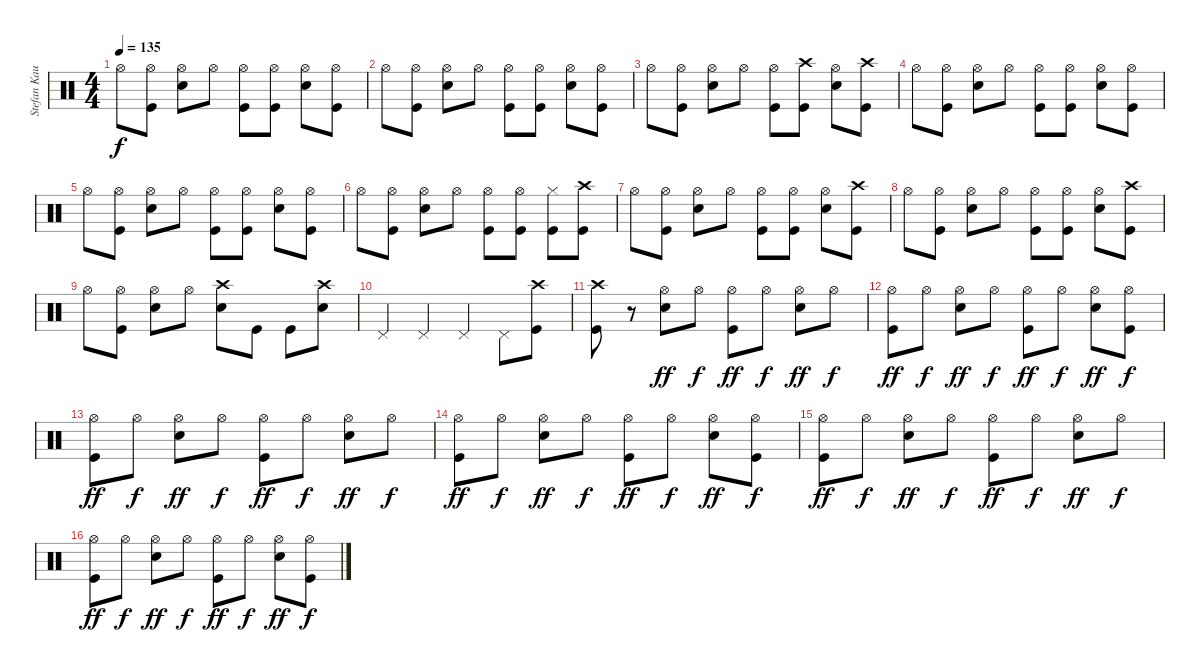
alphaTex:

\track ("Stefan Kaufmann" "Stefan Kau") {instrument percussion}
\staff {score}
\articulation defaults
\ts (4 4)
\tempo 135
\clef neutral
\ks c "Hi-Hat (open)".8{dy f}
("Hi-Hat (open)" "Kick (hit)").8 ("Hi-Hat (open)" "Snare (hit) 2").8 "Hi-Hat (open)".8 ("Hi-Hat (open)" "Kick (hit)").8 ("Hi-Hat (open)" "Kick (hit)").8 ("Hi-Hat (open)" "Snare (hit) 2").8 ("Hi-Hat (open)" "Kick (hit)").8 |
"Hi-Hat (open)".8 ("Hi-Hat (open)" "Kick (hit)").8 ("Hi-Hat (open)" "Snare (hit) 2").8 "Hi-Hat (open)".8 ("Hi-Hat (open)" "Kick (hit)").8 ("Hi-Hat (open)" "Kick (hit)").8 ("Hi-Hat (open)" "Snare (hit) 2").8 ("Hi-Hat (open)" "Kick (hit)").8 |
"Hi-Hat (open)".8 ("Hi-Hat (open)" "Kick (hit)").8 ("Hi-Hat (open)" "Snare (hit) 2").8 "Hi-Hat (open)".8 ("Hi-Hat (open)" "Kick (hit)").8 ("Crash high (hit)" "Kick (hit)").8 ("Hi-Hat (open)" "Snare (hit) 2").8 ("Crash high (hit)" "Kick (hit)").8 |
"Hi-Hat (open)".8 ("Hi-Hat (open)" "Kick (hit)").8 ("Hi-Hat (open)" "Snare (hit) 2").8 "Hi-Hat (open)".8 ("Hi-Hat (open)" "Kick (hit)").8 ("Hi-Hat (open)" "Kick (hit)").8 ("Hi-Hat (open)" "Snare (hit) 2").8 ("Hi-Hat (open)" "Kick (hit)").8 |
"Hi-Hat (open)".8 ("Hi-Hat (open)" "Kick (hit)").8 ("Hi-Hat (open)" "Snare (hit) 2").8 "Hi-Hat (open)".8 ("Hi-Hat (open)" "Kick (hit)").8 ("Hi-Hat (open)" "Kick (hit)").8 ("Hi-Hat (open)" "Snare (hit) 2").8 ("Hi-Hat (open)" "Kick (hit)").8 |
"Hi-Hat (open)".8 ("Hi-Hat (open)" "Kick (hit)").8 ("Hi-Hat (open)" "Snare (hit) 2").8 "Hi-Hat (open)".8 ("Hi-Hat (open)" "Kick (hit)").8 ("Hi-Hat (open)" "Kick (hit)").8 ("Hi-Hat (closed)" "Kick (hit)").8 ("Crash high (hit)" "Kick (hit)").8 |
"Hi-Hat (open)".8 ("Hi-Hat (open)" "Kick (hit)").8 ("Hi-Hat (open)" "Snare (hit) 2").8 "Hi-Hat (open)".8 ("Hi-Hat (open)" "Kick (hit)").8 ("Hi-Hat (open)" "Kick (hit)").8 ("Hi-Hat (open)" "Snare (hit) 2").8 ("Crash high (hit)" "Kick (hit)").8 |
"Hi-Hat (open)".8 ("Hi-Hat (open)" "Kick (hit)").8 ("Hi-Hat (open)" "Snare (hit) 2").8 "Hi-Hat (open)".8 ("Hi-Hat (open)" "Kick (hit)").8 ("Hi-Hat (open)" "Kick (hit)").8 ("Hi-Hat (open)" "Snare (hit) 2").8 ("Crash high (hit)" "Kick (hit)").8 |
"Hi-Hat (open)".8 ("Hi-Hat (open)" "Kick (hit)").8 ("Hi-Hat (open)" "Snare (hit) 2").8 "Hi-Hat (open)".8 ("Crash high (hit)" "Snare (hit) 2").8 "Kick (hit)".8 "Kick (hit)".8 ("Crash high (hit)" "Snare (hit) 2").8 |
"Pedal Hi-Hat (hit)".4 "Pedal Hi-Hat (hit)".4 "Pedal Hi-Hat (hit)".4 "Pedal Hi-Hat (hit)".8 ("Crash high (hit)" "Kick (hit)").8 |
("Crash high (hit)" "Kick (hit)").8 r.8 ("Hi-Hat (open)" "Snare (hit) 2").8{dy ff} "Hi-Hat (open)".8{dy f} ("Hi-Hat (open)" "Kick (hit)").8{dy ff} "Hi-Hat (open)".8{dy f} ("Hi-Hat (open)" "Snare (hit) 2").8{dy ff} "Hi-Hat (open)".8{dy f} |
("Hi-Hat (open)" "Kick (hit)").8{dy ff} "Hi-Hat (open)".8{dy f} ("Hi-Hat (open)" "Snare (hit) 2").8{dy ff} "Hi-Hat (open)".8{dy f} ("Hi-Hat (open)" "Kick (hit)").8{dy ff} "Hi-Hat (open)".8{dy f} ("Hi-Hat (open)" "Snare (hit) 2").8{dy ff} ("Hi-Hat (open)" "Kick (hit)").8{dy f} |
("Hi-Hat (open)" "Kick (hit)").8{dy ff} "Hi-Hat (open)".8{dy f} ("Hi-Hat (open)" "Snare (hit) 2").8{dy ff} "Hi-Hat (open)".8{dy f} ("Hi-Hat (open)" "Kick (hit)").8{dy ff} "Hi-Hat (open)".8{dy f} ("Hi-Hat (open)" "Snare (hit) 2").8{dy ff} "Hi-Hat (open)".8{dy f} |
("Hi-Hat (open)" "Kick (hit)").8{dy ff} "Hi-Hat (open)".8{dy f} ("Hi-Hat (open)" "Snare (hit) 2").8{dy ff} "Hi-Hat (open)".8{dy f} ("Hi-Hat (open)" "Kick (hit)").8{dy ff} "Hi-Hat (open)".8{dy f} ("Hi-Hat (open)" "Snare (hit) 2").8{dy ff} ("Hi-Hat (open)" "Kick (hit)").8{dy f} |
("Hi-Hat (open)" "Kick (hit)").8{dy ff} "Hi-Hat (open)".8{dy f} ("Snare (hit) 2" "Hi-Hat (open)").8{dy ff} "Hi-Hat (open)".8{dy f} ("Hi-Hat (open)" "Kick (hit)").8{dy ff} "Hi-Hat (open)".8{dy f} ("Hi-Hat (open)" "Snare (hit) 2").8{dy ff} "Hi-Hat (open)".8{dy f} |
("Hi-Hat (open)" "Kick (hit)").8{dy ff} "Hi-Hat (open)".8{dy f} ("Hi-Hat (open)" "Snare (hit) 2").8{dy ff} "Hi-Hat (open)".8{dy f} ("Hi-Hat (open)" "Kick (hit)").8{dy ff} "Hi-Hat (open)".8{dy f} ("Hi-Hat (open)" "Snare (hit) 2").8{dy ff} ("Hi-Hat (open)" "Kick (hit)").8{dy f}
